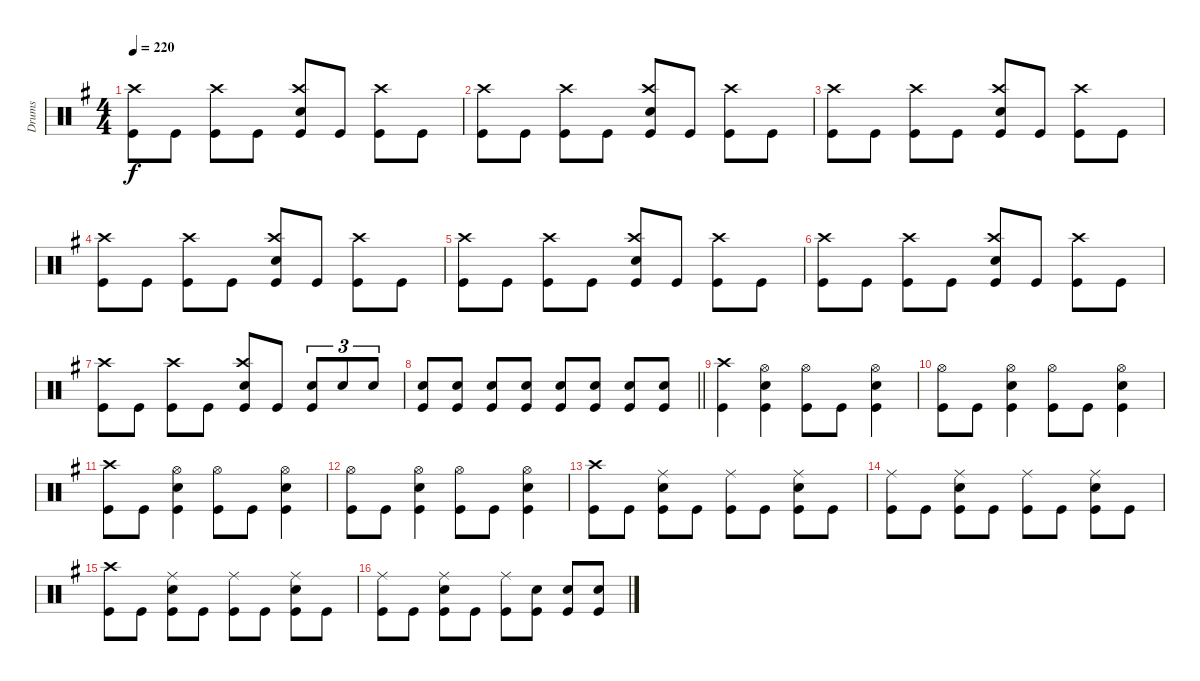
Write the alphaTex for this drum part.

\track ("Drums" "Drums") {instrument percussion}
\staff {score}
\articulation defaults
\ts (4 4)
\tempo 220
\clef neutral
\ks eminor
("Kick (hit)" "Crash high (hit)").8{dy f} "Kick (hit)".8 ("Kick (hit)" "Crash high (hit)").8 "Kick (hit)".8 ("Kick (hit)" "Snare (hit) 2" "Crash high (hit)").8 "Kick (hit)".8 ("Kick (hit)" "Crash high (hit)").8 "Kick (hit)".8 |
("Kick (hit)" "Crash high (hit)").8 "Kick (hit)".8 ("Kick (hit)" "Crash high (hit)").8 "Kick (hit)".8 ("Kick (hit)" "Snare (hit) 2" "Crash high (hit)").8 "Kick (hit)".8 ("Kick (hit)" "Crash high (hit)").8 "Kick (hit)".8 |
("Kick (hit)" "Crash high (hit)").8 "Kick (hit)".8 ("Kick (hit)" "Crash high (hit)").8 "Kick (hit)".8 ("Kick (hit)" "Snare (hit) 2" "Crash high (hit)").8 "Kick (hit)".8 ("Kick (hit)" "Crash high (hit)").8 "Kick (hit)".8 |
("Kick (hit)" "Crash high (hit)").8 "Kick (hit)".8 ("Kick (hit)" "Crash high (hit)").8 "Kick (hit)".8 ("Kick (hit)" "Snare (hit) 2" "Crash high (hit)").8 "Kick (hit)".8 ("Kick (hit)" "Crash high (hit)").8 "Kick (hit)".8 |
("Kick (hit)" "Crash high (hit)").8 "Kick (hit)".8 ("Kick (hit)" "Crash high (hit)").8 "Kick (hit)".8 ("Kick (hit)" "Snare (hit) 2" "Crash high (hit)").8 "Kick (hit)".8 ("Kick (hit)" "Crash high (hit)").8 "Kick (hit)".8 |
("Kick (hit)" "Crash high (hit)").8 "Kick (hit)".8 ("Kick (hit)" "Crash high (hit)").8 "Kick (hit)".8 ("Kick (hit)" "Snare (hit) 2" "Crash high (hit)").8 "Kick (hit)".8 ("Kick (hit)" "Crash high (hit)").8 "Kick (hit)".8 |
("Kick (hit)" "Crash high (hit)").8 "Kick (hit)".8 ("Kick (hit)" "Crash high (hit)").8 "Kick (hit)".8 ("Kick (hit)" "Snare (hit) 2" "Crash high (hit)").8 "Kick (hit)".8 ("Kick (hit)" "Snare (hit) 2").8{tu (3 2)} "Snare (hit) 2".8{tu (3 2)} "Snare (hit) 2".8{tu (3 2)} |
\barLineRight lightlight
("Kick (hit)" "Snare (hit) 2").8 ("Kick (hit)" "Snare (hit) 2").8 ("Kick (hit)" "Snare (hit) 2").8 ("Kick (hit)" "Snare (hit) 2").8 ("Kick (hit)" "Snare (hit) 2").8 ("Kick (hit)" "Snare (hit) 2").8 ("Kick (hit)" "Snare (hit) 2").8 ("Kick (hit)" "Snare (hit) 2").8 |
("Kick (hit)" "Crash high (hit)").4 ("Snare (hit) 2" "Kick (hit)" "Hi-Hat (open)").4 ("Kick (hit)" "Hi-Hat (open)").8 "Kick (hit)".8 ("Kick (hit)" "Snare (hit) 2" "Hi-Hat (open)").4 |
("Kick (hit)" "Hi-Hat (open)").8 "Kick (hit)".8 ("Kick (hit)" "Snare (hit) 2" "Hi-Hat (open)").4 ("Kick (hit)" "Hi-Hat (open)").8 "Kick (hit)".8 ("Kick (hit)" "Snare (hit) 2" "Hi-Hat (open)").4 |
("Kick (hit)" "Crash high (hit)").8 "Kick (hit)".8 ("Snare (hit) 2" "Kick (hit)" "Hi-Hat (open)").4 ("Kick (hit)" "Hi-Hat (open)").8 "Kick (hit)".8 ("Kick (hit)" "Snare (hit) 2" "Hi-Hat (open)").4 |
("Kick (hit)" "Hi-Hat (open)").8 "Kick (hit)".8 ("Kick (hit)" "Snare (hit) 2" "Hi-Hat (open)").4 ("Kick (hit)" "Hi-Hat (open)").8 "Kick (hit)".8 ("Kick (hit)" "Snare (hit) 2" "Hi-Hat (open)").4 |
("Kick (hit)" "Crash high (hit)").8 "Kick (hit)".8 ("Snare (hit) 2" "Kick (hit)" "Ride (middle)").8 "Kick (hit)".8 ("Kick (hit)" "Ride (middle)").8 "Kick (hit)".8 ("Kick (hit)" "Snare (hit) 2" "Ride (middle)").8 "Kick (hit)".8 |
("Kick (hit)" "Ride (middle)").8 "Kick (hit)".8 ("Kick (hit)" "Snare (hit) 2" "Ride (middle)").8 "Kick (hit)".8 ("Kick (hit)" "Ride (middle)").8 "Kick (hit)".8 ("Kick (hit)" "Snare (hit) 2" "Ride (middle)").8 "Kick (hit)".8 |
("Kick (hit)" "Crash high (hit)").8 "Kick (hit)".8 ("Snare (hit) 2" "Kick (hit)" "Ride (middle)").8 "Kick (hit)".8 ("Kick (hit)" "Ride (middle)").8 "Kick (hit)".8 ("Kick (hit)" "Snare (hit) 2" "Ride (middle)").8 "Kick (hit)".8 |
("Kick (hit)" "Ride (middle)").8 "Kick (hit)".8 ("Kick (hit)" "Snare (hit) 2" "Ride (middle)").8 "Kick (hit)".8 ("Kick (hit)" "Ride (middle)").8 ("Kick (hit)" "Snare (hit) 2").8 ("Kick (hit)" "Snare (hit) 2").8 ("Kick (hit)" "Snare (hit) 2").8
